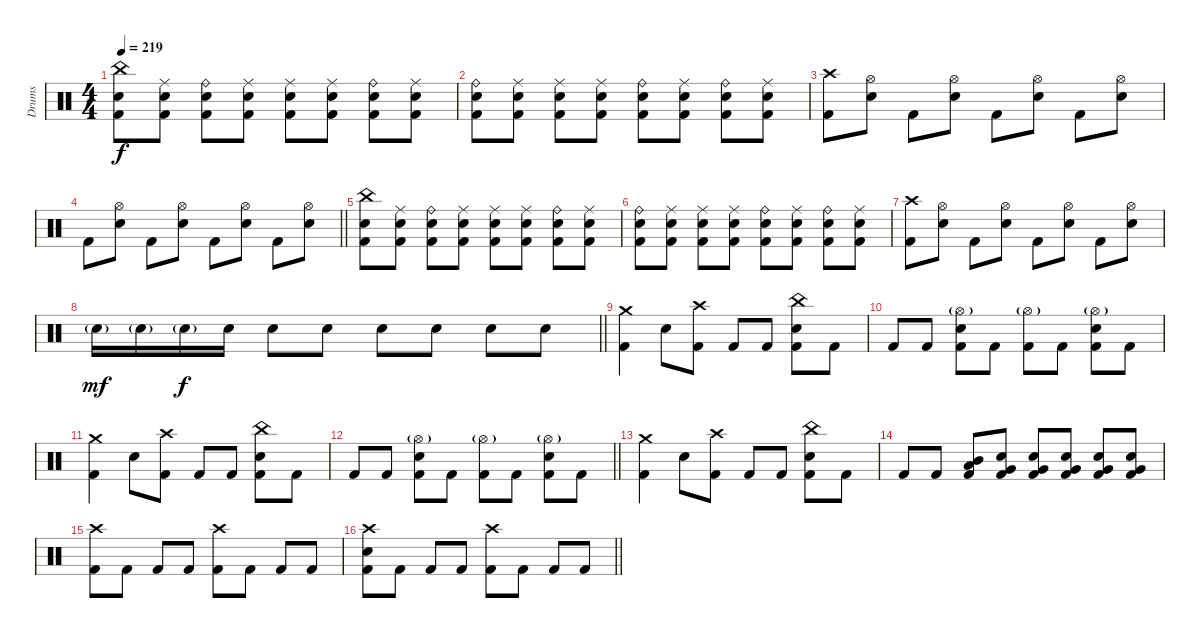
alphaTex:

\track ("Drums" "Drums") {instrument percussion}
\staff {score}
\articulation defaults
\ts (4 4)
\section ("" "")
\tempo 219
\clef neutral
\ks c
("China (hit)" "Electric Snare (hit)" "Kick (hit) 2").8{dy f} ("Ride (middle)" "Electric Snare (hit)" "Kick (hit) 2").8 ("Ride (bell)" "Electric Snare (hit)" "Kick (hit) 2").8 ("Ride (middle)" "Electric Snare (hit)" "Kick (hit) 2").8 ("Ride (middle)" "Electric Snare (hit)" "Kick (hit) 2").8 ("Ride (middle)" "Electric Snare (hit)" "Kick (hit) 2").8 ("Ride (bell)" "Electric Snare (hit)" "Kick (hit) 2").8 ("Ride (middle)" "Electric Snare (hit)" "Kick (hit) 2").8 |
("Ride (bell)" "Electric Snare (hit)" "Kick (hit) 2").8 ("Ride (middle)" "Electric Snare (hit)" "Kick (hit) 2").8 ("Ride (middle)" "Electric Snare (hit)" "Kick (hit) 2").8 ("Ride (middle)" "Electric Snare (hit)" "Kick (hit) 2").8 ("Ride (bell)" "Electric Snare (hit)" "Kick (hit) 2").8 ("Ride (middle)" "Electric Snare (hit)" "Kick (hit) 2").8 ("Ride (bell)" "Electric Snare (hit)" "Kick (hit) 2").8 ("Ride (middle)" "Electric Snare (hit)" "Kick (hit) 2").8 |
("Crash high (hit)" "Kick (hit) 2").8 ("Hi-Hat (open)" "Electric Snare (hit)").8 "Kick (hit) 2".8 ("Hi-Hat (open)" "Electric Snare (hit)").8 "Kick (hit) 2".8 ("Hi-Hat (open)" "Electric Snare (hit)").8 "Kick (hit) 2".8 ("Hi-Hat (open)" "Electric Snare (hit)").8 |
\barLineRight lightlight "Kick (hit) 2".8
("Hi-Hat (open)" "Electric Snare (hit)").8 "Kick (hit) 2".8 ("Hi-Hat (open)" "Electric Snare (hit)").8 "Kick (hit) 2".8 ("Hi-Hat (open)" "Electric Snare (hit)").8 "Kick (hit) 2".8 ("Hi-Hat (open)" "Electric Snare (hit)").8 |
("China (hit)" "Electric Snare (hit)" "Kick (hit) 2").8 ("Ride (middle)" "Electric Snare (hit)" "Kick (hit) 2").8 ("Ride (bell)" "Electric Snare (hit)" "Kick (hit) 2").8 ("Ride (middle)" "Electric Snare (hit)" "Kick (hit) 2").8 ("Ride (middle)" "Electric Snare (hit)" "Kick (hit) 2").8 ("Ride (middle)" "Electric Snare (hit)" "Kick (hit) 2").8 ("Ride (bell)" "Electric Snare (hit)" "Kick (hit) 2").8 ("Ride (middle)" "Electric Snare (hit)" "Kick (hit) 2").8 |
("Ride (bell)" "Electric Snare (hit)" "Kick (hit) 2").8 ("Ride (middle)" "Electric Snare (hit)" "Kick (hit) 2").8 ("Ride (middle)" "Electric Snare (hit)" "Kick (hit) 2").8 ("Ride (middle)" "Electric Snare (hit)" "Kick (hit) 2").8 ("Ride (bell)" "Electric Snare (hit)" "Kick (hit) 2").8 ("Ride (middle)" "Electric Snare (hit)" "Kick (hit) 2").8 ("Ride (bell)" "Electric Snare (hit)" "Kick (hit) 2").8 ("Ride (middle)" "Electric Snare (hit)" "Kick (hit) 2").8 |
("Crash high (hit)" "Kick (hit) 2").8 ("Hi-Hat (open)" "Electric Snare (hit)").8 "Kick (hit) 2".8 ("Hi-Hat (open)" "Electric Snare (hit)").8 "Kick (hit) 2".8 ("Hi-Hat (open)" "Electric Snare (hit)").8 "Kick (hit) 2".8 ("Hi-Hat (open)" "Electric Snare (hit)").8 |
\barLineRight lightlight "Electric Snare (hit)"{g}.16{dy mf} "Electric Snare (hit)"{g}.16 "Electric Snare (hit)"{g}.16{dy f} "Electric Snare (hit)".16 "Electric Snare (hit)".8 "Electric Snare (hit)".8 "Electric Snare (hit)".8 "Electric Snare (hit)".8 "Electric Snare (hit)".8 "Electric Snare (hit)".8
|
\section ("" "")
("Crash medium (hit)" "Kick (hit) 2").4 "Electric Snare (hit)".8 ("Crash high (hit)" "Kick (hit) 2").8 "Kick (hit) 2".8 "Kick (hit) 2".8 ("China (hit)" "Electric Snare (hit)" "Kick (hit) 2").8 "Kick (hit) 2".8 |
"Kick (hit) 2".8 "Kick (hit) 2".8 ("Hi-Hat (open)"{g} "Electric Snare (hit)" "Kick (hit) 2").8 "Kick (hit) 2".8 ("Hi-Hat (open)"{g} "Kick (hit) 2").8 "Kick (hit) 2".8 ("Hi-Hat (open)"{g} "Electric Snare (hit)" "Kick (hit) 2").8 "Kick (hit) 2".8 |
("Crash medium (hit)" "Kick (hit) 2").4 "Electric Snare (hit)".8 ("Crash high (hit)" "Kick (hit) 2").8 "Kick (hit) 2".8 "Kick (hit) 2".8 ("China (hit)" "Electric Snare (hit)" "Kick (hit) 2").8 "Kick (hit) 2".8 |
\barLineRight lightlight "Kick (hit) 2".8 "Kick (hit) 2".8
("Hi-Hat (open)"{g} "Electric Snare (hit)" "Kick (hit) 2").8 "Kick (hit) 2".8 ("Hi-Hat (open)"{g} "Kick (hit) 2").8 "Kick (hit) 2".8 ("Hi-Hat (open)"{g} "Electric Snare (hit)" "Kick (hit) 2").8 "Kick (hit) 2".8 |
("Crash medium (hit)" "Kick (hit) 2").4 "Electric Snare (hit)".8 ("Crash high (hit)" "Kick (hit) 2").8 "Kick (hit) 2".8 "Kick (hit) 2".8 ("China (hit)" "Electric Snare (hit)" "Kick (hit) 2").8 "Kick (hit) 2".8 |
"Kick (hit) 2".8 "Kick (hit) 2".8 ("Mid Tom (hit)" "Low Tom (hit)" "Kick (hit) 2").8 ("Electric Snare (hit)" "Very Low Tom (hit)" "Kick (hit) 2").8 ("Electric Snare (hit)" "Very Low Tom (hit)" "Kick (hit) 2").8 ("Electric Snare (hit)" "Very Low Tom (hit)" "Kick (hit) 2").8 ("Electric Snare (hit)" "Very Low Tom (hit)" "Kick (hit) 2").8 ("Electric Snare (hit)" "Very Low Tom (hit)" "Kick (hit) 2").8 |
("Crash high (hit)" "Kick (hit) 2").8 "Kick (hit) 2".8 "Kick (hit) 2".8 "Kick (hit) 2".8 ("Crash high (hit)" "Kick (hit) 2").8 "Kick (hit) 2".8 "Kick (hit) 2".8 "Kick (hit) 2".8 |
\barLineRight lightlight
("Crash high (hit)" "Electric Snare (hit)" "Kick (hit) 2").8 "Kick (hit) 2".8 "Kick (hit) 2".8 "Kick (hit) 2".8 ("Crash high (hit)" "Kick (hit) 2").8 "Kick (hit) 2".8 "Kick (hit) 2".8 "Kick (hit) 2".8
